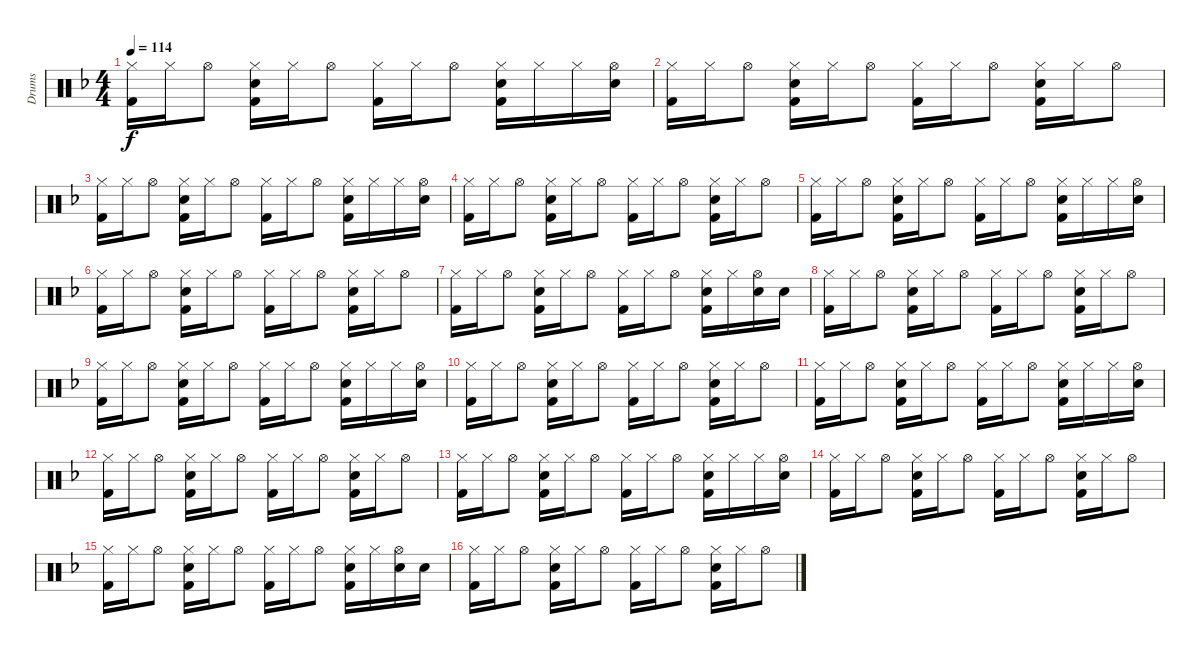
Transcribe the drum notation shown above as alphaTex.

\track ("Drums" "Drums") {instrument percussion}
\staff {score}
\articulation defaults
\ts (4 4)
\tempo 114
\clef neutral
\ks f
("Hi-Hat (closed)" "Kick (hit) 2").16{dy f} "Hi-Hat (closed)".16 "Hi-Hat (open)".8 ("Hi-Hat (closed)" "Electric Snare (hit)" "Kick (hit) 2").16 "Hi-Hat (closed)".16 "Hi-Hat (open)".8 ("Hi-Hat (closed)" "Kick (hit) 2").16 "Hi-Hat (closed)".16 "Hi-Hat (open)".8 ("Hi-Hat (closed)" "Electric Snare (hit)" "Kick (hit) 2").16 "Hi-Hat (closed)".16 "Hi-Hat (closed)".16 ("Hi-Hat (open)" "Electric Snare (hit)").16 |
("Hi-Hat (closed)" "Kick (hit) 2").16 "Hi-Hat (closed)".16 "Hi-Hat (open)".8 ("Hi-Hat (closed)" "Electric Snare (hit)" "Kick (hit) 2").16 "Hi-Hat (closed)".16 "Hi-Hat (open)".8 ("Hi-Hat (closed)" "Kick (hit) 2").16 "Hi-Hat (closed)".16 "Hi-Hat (open)".8 ("Hi-Hat (closed)" "Electric Snare (hit)" "Kick (hit) 2").16 "Hi-Hat (closed)".16 "Hi-Hat (open)".8 |
("Hi-Hat (closed)" "Kick (hit) 2").16 "Hi-Hat (closed)".16 "Hi-Hat (open)".8 ("Hi-Hat (closed)" "Electric Snare (hit)" "Kick (hit) 2").16 "Hi-Hat (closed)".16 "Hi-Hat (open)".8 ("Hi-Hat (closed)" "Kick (hit) 2").16 "Hi-Hat (closed)".16 "Hi-Hat (open)".8 ("Hi-Hat (closed)" "Electric Snare (hit)" "Kick (hit) 2").16 "Hi-Hat (closed)".16 "Hi-Hat (closed)".16 ("Hi-Hat (open)" "Electric Snare (hit)").16 |
("Hi-Hat (closed)" "Kick (hit) 2").16 "Hi-Hat (closed)".16 "Hi-Hat (open)".8 ("Hi-Hat (closed)" "Electric Snare (hit)" "Kick (hit) 2").16 "Hi-Hat (closed)".16 "Hi-Hat (open)".8 ("Hi-Hat (closed)" "Kick (hit) 2").16 "Hi-Hat (closed)".16 "Hi-Hat (open)".8 ("Hi-Hat (closed)" "Electric Snare (hit)" "Kick (hit) 2").16 "Hi-Hat (closed)".16 "Hi-Hat (open)".8 |
("Hi-Hat (closed)" "Kick (hit) 2").16 "Hi-Hat (closed)".16 "Hi-Hat (open)".8 ("Hi-Hat (closed)" "Electric Snare (hit)" "Kick (hit) 2").16 "Hi-Hat (closed)".16 "Hi-Hat (open)".8 ("Hi-Hat (closed)" "Kick (hit) 2").16 "Hi-Hat (closed)".16 "Hi-Hat (open)".8 ("Hi-Hat (closed)" "Electric Snare (hit)" "Kick (hit) 2").16 "Hi-Hat (closed)".16 "Hi-Hat (closed)".16 ("Hi-Hat (open)" "Electric Snare (hit)").16 |
("Hi-Hat (closed)" "Kick (hit) 2").16 "Hi-Hat (closed)".16 "Hi-Hat (open)".8 ("Hi-Hat (closed)" "Electric Snare (hit)" "Kick (hit) 2").16 "Hi-Hat (closed)".16 "Hi-Hat (open)".8 ("Hi-Hat (closed)" "Kick (hit) 2").16 "Hi-Hat (closed)".16 "Hi-Hat (open)".8 ("Hi-Hat (closed)" "Electric Snare (hit)" "Kick (hit) 2").16 "Hi-Hat (closed)".16 "Hi-Hat (open)".8 |
("Hi-Hat (closed)" "Kick (hit) 2").16 "Hi-Hat (closed)".16 "Hi-Hat (open)".8 ("Hi-Hat (closed)" "Electric Snare (hit)" "Kick (hit) 2").16 "Hi-Hat (closed)".16 "Hi-Hat (open)".8 ("Hi-Hat (closed)" "Kick (hit) 2").16 "Hi-Hat (closed)".16 "Hi-Hat (open)".8 ("Hi-Hat (closed)" "Electric Snare (hit)" "Kick (hit) 2").16 "Hi-Hat (closed)".16 ("Hi-Hat (open)" "Electric Snare (hit)").16 "Electric Snare (hit)".16 |
("Hi-Hat (closed)" "Kick (hit) 2").16 "Hi-Hat (closed)".16 "Hi-Hat (open)".8 ("Hi-Hat (closed)" "Electric Snare (hit)" "Kick (hit) 2").16 "Hi-Hat (closed)".16 "Hi-Hat (open)".8 ("Hi-Hat (closed)" "Kick (hit) 2").16 "Hi-Hat (closed)".16 "Hi-Hat (open)".8 ("Hi-Hat (closed)" "Electric Snare (hit)" "Kick (hit) 2").16 "Hi-Hat (closed)".16 "Hi-Hat (open)".8 |
("Hi-Hat (closed)" "Kick (hit) 2").16 "Hi-Hat (closed)".16 "Hi-Hat (open)".8 ("Hi-Hat (closed)" "Electric Snare (hit)" "Kick (hit) 2").16 "Hi-Hat (closed)".16 "Hi-Hat (open)".8 ("Hi-Hat (closed)" "Kick (hit) 2").16 "Hi-Hat (closed)".16 "Hi-Hat (open)".8 ("Hi-Hat (closed)" "Electric Snare (hit)" "Kick (hit) 2").16 "Hi-Hat (closed)".16 "Hi-Hat (closed)".16 ("Hi-Hat (open)" "Electric Snare (hit)").16 |
("Hi-Hat (closed)" "Kick (hit) 2").16 "Hi-Hat (closed)".16 "Hi-Hat (open)".8 ("Hi-Hat (closed)" "Electric Snare (hit)" "Kick (hit) 2").16 "Hi-Hat (closed)".16 "Hi-Hat (open)".8 ("Hi-Hat (closed)" "Kick (hit) 2").16 "Hi-Hat (closed)".16 "Hi-Hat (open)".8 ("Hi-Hat (closed)" "Electric Snare (hit)" "Kick (hit) 2").16 "Hi-Hat (closed)".16 "Hi-Hat (open)".8 |
("Hi-Hat (closed)" "Kick (hit) 2").16 "Hi-Hat (closed)".16 "Hi-Hat (open)".8 ("Hi-Hat (closed)" "Electric Snare (hit)" "Kick (hit) 2").16 "Hi-Hat (closed)".16 "Hi-Hat (open)".8 ("Hi-Hat (closed)" "Kick (hit) 2").16 "Hi-Hat (closed)".16 "Hi-Hat (open)".8 ("Hi-Hat (closed)" "Electric Snare (hit)" "Kick (hit) 2").16 "Hi-Hat (closed)".16 "Hi-Hat (closed)".16 ("Hi-Hat (open)" "Electric Snare (hit)").16 |
("Hi-Hat (closed)" "Kick (hit) 2").16 "Hi-Hat (closed)".16 "Hi-Hat (open)".8 ("Hi-Hat (closed)" "Electric Snare (hit)" "Kick (hit) 2").16 "Hi-Hat (closed)".16 "Hi-Hat (open)".8 ("Hi-Hat (closed)" "Kick (hit) 2").16 "Hi-Hat (closed)".16 "Hi-Hat (open)".8 ("Hi-Hat (closed)" "Electric Snare (hit)" "Kick (hit) 2").16 "Hi-Hat (closed)".16 "Hi-Hat (open)".8 |
("Hi-Hat (closed)" "Kick (hit) 2").16 "Hi-Hat (closed)".16 "Hi-Hat (open)".8 ("Hi-Hat (closed)" "Electric Snare (hit)" "Kick (hit) 2").16 "Hi-Hat (closed)".16 "Hi-Hat (open)".8 ("Hi-Hat (closed)" "Kick (hit) 2").16 "Hi-Hat (closed)".16 "Hi-Hat (open)".8 ("Hi-Hat (closed)" "Electric Snare (hit)" "Kick (hit) 2").16 "Hi-Hat (closed)".16 "Hi-Hat (closed)".16 ("Hi-Hat (open)" "Electric Snare (hit)").16 |
("Hi-Hat (closed)" "Kick (hit) 2").16 "Hi-Hat (closed)".16 "Hi-Hat (open)".8 ("Hi-Hat (closed)" "Electric Snare (hit)" "Kick (hit) 2").16 "Hi-Hat (closed)".16 "Hi-Hat (open)".8 ("Hi-Hat (closed)" "Kick (hit) 2").16 "Hi-Hat (closed)".16 "Hi-Hat (open)".8 ("Hi-Hat (closed)" "Electric Snare (hit)" "Kick (hit) 2").16 "Hi-Hat (closed)".16 "Hi-Hat (open)".8 |
("Hi-Hat (closed)" "Kick (hit) 2").16 "Hi-Hat (closed)".16 "Hi-Hat (open)".8 ("Hi-Hat (closed)" "Electric Snare (hit)" "Kick (hit) 2").16 "Hi-Hat (closed)".16 "Hi-Hat (open)".8 ("Hi-Hat (closed)" "Kick (hit) 2").16 "Hi-Hat (closed)".16 "Hi-Hat (open)".8 ("Hi-Hat (closed)" "Electric Snare (hit)" "Kick (hit) 2").16 "Hi-Hat (closed)".16 ("Hi-Hat (open)" "Electric Snare (hit)").16 "Electric Snare (hit)".16 |
("Hi-Hat (closed)" "Kick (hit) 2").16 "Hi-Hat (closed)".16 "Hi-Hat (open)".8 ("Hi-Hat (closed)" "Electric Snare (hit)" "Kick (hit) 2").16 "Hi-Hat (closed)".16 "Hi-Hat (open)".8 ("Hi-Hat (closed)" "Kick (hit) 2").16 "Hi-Hat (closed)".16 "Hi-Hat (open)".8 ("Hi-Hat (closed)" "Electric Snare (hit)" "Kick (hit) 2").16 "Hi-Hat (closed)".16 "Hi-Hat (open)".8
